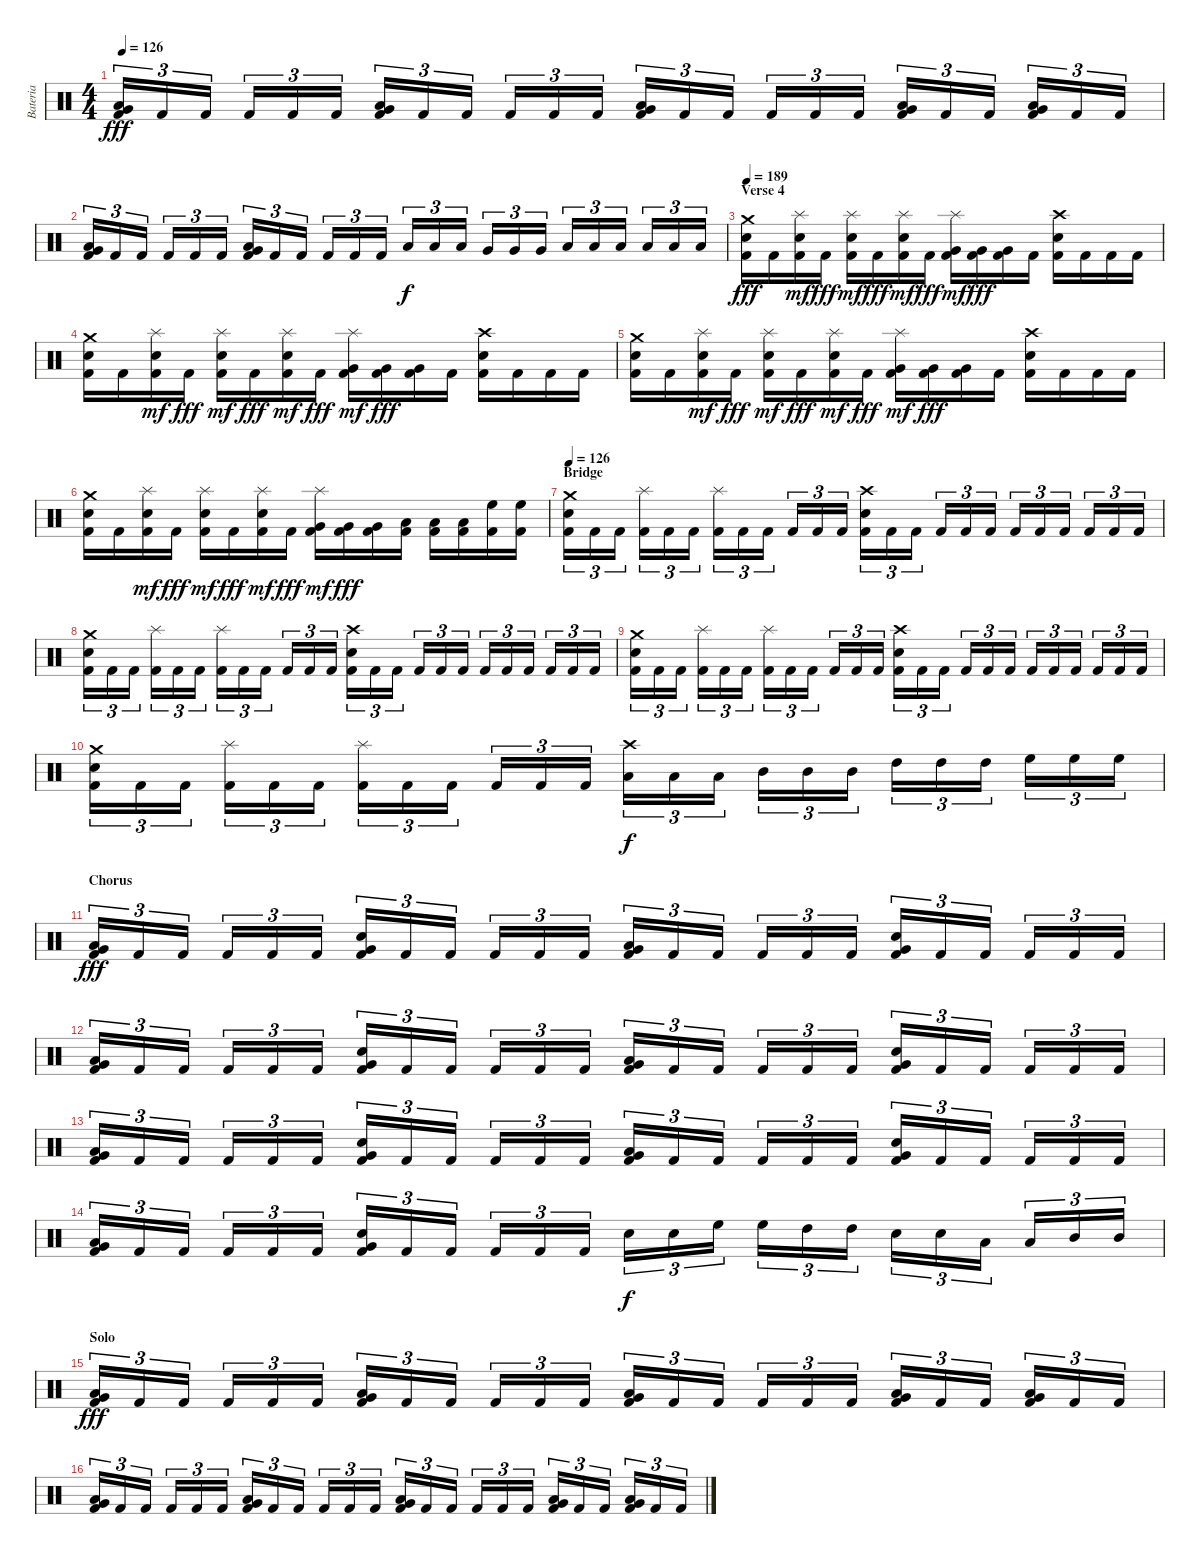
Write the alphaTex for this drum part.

\track ("Bateria" "Bateria") {instrument percussion}
\staff {score}
\articulation defaults
\ts (4 4)
\tempo 126
\clef neutral
\ks c
("Kick (hit) 2" "Low Floor Tom (hit)" "Very Low Tom (hit)").16{tu (3 2) dy fff} "Kick (hit) 2".16{tu (3 2)} "Kick (hit) 2".16{tu (3 2)} "Kick (hit) 2".16{tu (3 2)} "Kick (hit) 2".16{tu (3 2)} "Kick (hit) 2".16{tu (3 2)} ("Kick (hit) 2" "Low Floor Tom (hit)" "Very Low Tom (hit)").16{tu (3 2)} "Kick (hit) 2".16{tu (3 2)} "Kick (hit) 2".16{tu (3 2)} "Kick (hit) 2".16{tu (3 2)} "Kick (hit) 2".16{tu (3 2)} "Kick (hit) 2".16{tu (3 2)} ("Kick (hit) 2" "Low Floor Tom (hit)" "Very Low Tom (hit)").16{tu (3 2)} "Kick (hit) 2".16{tu (3 2)} "Kick (hit) 2".16{tu (3 2)} "Kick (hit) 2".16{tu (3 2)} "Kick (hit) 2".16{tu (3 2)} "Kick (hit) 2".16{tu (3 2)} ("Kick (hit) 2" "Low Floor Tom (hit)" "Very Low Tom (hit)").16{tu (3 2)} "Kick (hit) 2".16{tu (3 2)} "Kick (hit) 2".16{tu (3 2)} ("Kick (hit) 2" "Low Floor Tom (hit)" "Very Low Tom (hit)").16{tu (3 2)} "Kick (hit) 2".16{tu (3 2)} "Kick (hit) 2".16{tu (3 2)} |
("Kick (hit) 2" "Low Floor Tom (hit)" "Very Low Tom (hit)").16{tu (3 2)} "Kick (hit) 2".16{tu (3 2)} "Kick (hit) 2".16{tu (3 2)} "Kick (hit) 2".16{tu (3 2)} "Kick (hit) 2".16{tu (3 2)} "Kick (hit) 2".16{tu (3 2)} ("Kick (hit) 2" "Low Floor Tom (hit)" "Very Low Tom (hit)").16{tu (3 2)} "Kick (hit) 2".16{tu (3 2)} "Kick (hit) 2".16{tu (3 2)} "Kick (hit) 2".16{tu (3 2)} "Kick (hit) 2".16{tu (3 2)} "Kick (hit) 2".16{tu (3 2)} "Low Tom (hit)".16{tu (3 2) dy f} "Low Tom (hit)".16{tu (3 2)} "Low Tom (hit)".16{tu (3 2)} "Very Low Tom (hit)".16{tu (3 2)} "Very Low Tom (hit)".16{tu (3 2)} "Very Low Tom (hit)".16{tu (3 2)} "Low Tom (hit)".16{tu (3 2)} "Low Tom (hit)".16{tu (3 2)} "Low Tom (hit)".16{tu (3 2)} "Low Floor Tom (hit)".16{tu (3 2)} "Low Floor Tom (hit)".16{tu (3 2)} "Low Floor Tom (hit)".16{tu (3 2)} |
\section ("" "Verse 4")
\tempo 189
("Kick (hit) 2" "Electric Snare (hit)" "Crash medium (hit)").16{dy fff} "Kick (hit) 2".16 ("Kick (hit) 2" "Electric Snare (hit)" "Splash (hit)").16{dy mf} "Kick (hit) 2".16{dy fff} ("Kick (hit) 2" "Electric Snare (hit)" "Splash (hit)").16{dy mf} "Kick (hit) 2".16{dy fff} ("Kick (hit) 2" "Electric Snare (hit)" "Splash (hit)").16{dy mf} "Kick (hit) 2".16{dy fff} ("Kick (hit) 2" "Very Low Tom (hit)" "Splash (hit)").16{dy mf} ("Kick (hit) 2" "Very Low Tom (hit)").16{dy fff} ("Kick (hit) 2" "Very Low Tom (hit)").16 "Kick (hit) 2".16 ("Kick (hit) 2" "Electric Snare (hit)" "Crash high (hit)").16 "Kick (hit) 2".16 "Kick (hit) 2".16 "Kick (hit) 2".16 |
("Kick (hit) 2" "Electric Snare (hit)" "Crash medium (hit)").16 "Kick (hit) 2".16 ("Kick (hit) 2" "Electric Snare (hit)" "Splash (hit)").16{dy mf} "Kick (hit) 2".16{dy fff} ("Kick (hit) 2" "Electric Snare (hit)" "Splash (hit)").16{dy mf} "Kick (hit) 2".16{dy fff} ("Kick (hit) 2" "Electric Snare (hit)" "Splash (hit)").16{dy mf} "Kick (hit) 2".16{dy fff} ("Kick (hit) 2" "Very Low Tom (hit)" "Splash (hit)").16{dy mf} ("Kick (hit) 2" "Very Low Tom (hit)").16{dy fff} ("Kick (hit) 2" "Very Low Tom (hit)").16 "Kick (hit) 2".16 ("Kick (hit) 2" "Electric Snare (hit)" "Crash high (hit)").16 "Kick (hit) 2".16 "Kick (hit) 2".16 "Kick (hit) 2".16 |
("Kick (hit) 2" "Electric Snare (hit)" "Crash medium (hit)").16 "Kick (hit) 2".16 ("Kick (hit) 2" "Electric Snare (hit)" "Splash (hit)").16{dy mf} "Kick (hit) 2".16{dy fff} ("Kick (hit) 2" "Electric Snare (hit)" "Splash (hit)").16{dy mf} "Kick (hit) 2".16{dy fff} ("Kick (hit) 2" "Electric Snare (hit)" "Splash (hit)").16{dy mf} "Kick (hit) 2".16{dy fff} ("Kick (hit) 2" "Very Low Tom (hit)" "Splash (hit)").16{dy mf} ("Kick (hit) 2" "Very Low Tom (hit)").16{dy fff} ("Kick (hit) 2" "Very Low Tom (hit)").16 "Kick (hit) 2".16 ("Kick (hit) 2" "Electric Snare (hit)" "Crash high (hit)").16 "Kick (hit) 2".16 "Kick (hit) 2".16 "Kick (hit) 2".16 |
("Kick (hit) 2" "Electric Snare (hit)" "Crash medium (hit)").16 "Kick (hit) 2".16 ("Kick (hit) 2" "Electric Snare (hit)" "Splash (hit)").16{dy mf} "Kick (hit) 2".16{dy fff} ("Kick (hit) 2" "Electric Snare (hit)" "Splash (hit)").16{dy mf} "Kick (hit) 2".16{dy fff} ("Kick (hit) 2" "Electric Snare (hit)" "Splash (hit)").16{dy mf} "Kick (hit) 2".16{dy fff} ("Kick (hit) 2" "Very Low Tom (hit)" "Splash (hit)").16{dy mf} ("Kick (hit) 2" "Very Low Tom (hit)").16{dy fff} ("Kick (hit) 2" "Very Low Tom (hit)").16 ("Kick (hit) 2" "Low Floor Tom (hit)").16 ("Kick (hit) 2" "Low Floor Tom (hit)").16 ("Kick (hit) 2" "Low Floor Tom (hit)").16 ("Kick (hit) 2" "High Floor Tom (hit)").16 ("Kick (hit) 2" "High Floor Tom (hit)").16 |
\section ("" "Bridge")
\tempo 126
("Kick (hit) 2" "Electric Snare (hit)" "Crash medium (hit)").16{tu (3 2)} "Kick (hit) 2".16{tu (3 2)} "Kick (hit) 2".16{tu (3 2)} ("Kick (hit) 2" "Splash (hit)").16{tu (3 2)} "Kick (hit) 2".16{tu (3 2)} "Kick (hit) 2".16{tu (3 2)} ("Kick (hit) 2" "Splash (hit)").16{tu (3 2)} "Kick (hit) 2".16{tu (3 2)} "Kick (hit) 2".16{tu (3 2)} "Kick (hit) 2".16{tu (3 2)} "Kick (hit) 2".16{tu (3 2)} "Kick (hit) 2".16{tu (3 2)} ("Kick (hit) 2" "Electric Snare (hit)" "Crash high (hit)").16{tu (3 2)} "Kick (hit) 2".16{tu (3 2)} "Kick (hit) 2".16{tu (3 2)} "Kick (hit) 2".16{tu (3 2)} "Kick (hit) 2".16{tu (3 2)} "Kick (hit) 2".16{tu (3 2)} "Kick (hit) 2".16{tu (3 2)} "Kick (hit) 2".16{tu (3 2)} "Kick (hit) 2".16{tu (3 2)} "Kick (hit) 2".16{tu (3 2)} "Kick (hit) 2".16{tu (3 2)} "Kick (hit) 2".16{tu (3 2)} |
("Kick (hit) 2" "Electric Snare (hit)" "Crash medium (hit)").16{tu (3 2)} "Kick (hit) 2".16{tu (3 2)} "Kick (hit) 2".16{tu (3 2)} ("Kick (hit) 2" "Splash (hit)").16{tu (3 2)} "Kick (hit) 2".16{tu (3 2)} "Kick (hit) 2".16{tu (3 2)} ("Kick (hit) 2" "Splash (hit)").16{tu (3 2)} "Kick (hit) 2".16{tu (3 2)} "Kick (hit) 2".16{tu (3 2)} "Kick (hit) 2".16{tu (3 2)} "Kick (hit) 2".16{tu (3 2)} "Kick (hit) 2".16{tu (3 2)} ("Kick (hit) 2" "Electric Snare (hit)" "Crash high (hit)").16{tu (3 2)} "Kick (hit) 2".16{tu (3 2)} "Kick (hit) 2".16{tu (3 2)} "Kick (hit) 2".16{tu (3 2)} "Kick (hit) 2".16{tu (3 2)} "Kick (hit) 2".16{tu (3 2)} "Kick (hit) 2".16{tu (3 2)} "Kick (hit) 2".16{tu (3 2)} "Kick (hit) 2".16{tu (3 2)} "Kick (hit) 2".16{tu (3 2)} "Kick (hit) 2".16{tu (3 2)} "Kick (hit) 2".16{tu (3 2)} |
("Kick (hit) 2" "Electric Snare (hit)" "Crash medium (hit)").16{tu (3 2)} "Kick (hit) 2".16{tu (3 2)} "Kick (hit) 2".16{tu (3 2)} ("Kick (hit) 2" "Splash (hit)").16{tu (3 2)} "Kick (hit) 2".16{tu (3 2)} "Kick (hit) 2".16{tu (3 2)} ("Kick (hit) 2" "Splash (hit)").16{tu (3 2)} "Kick (hit) 2".16{tu (3 2)} "Kick (hit) 2".16{tu (3 2)} "Kick (hit) 2".16{tu (3 2)} "Kick (hit) 2".16{tu (3 2)} "Kick (hit) 2".16{tu (3 2)} ("Kick (hit) 2" "Electric Snare (hit)" "Crash high (hit)").16{tu (3 2)} "Kick (hit) 2".16{tu (3 2)} "Kick (hit) 2".16{tu (3 2)} "Kick (hit) 2".16{tu (3 2)} "Kick (hit) 2".16{tu (3 2)} "Kick (hit) 2".16{tu (3 2)} "Kick (hit) 2".16{tu (3 2)} "Kick (hit) 2".16{tu (3 2)} "Kick (hit) 2".16{tu (3 2)} "Kick (hit) 2".16{tu (3 2)} "Kick (hit) 2".16{tu (3 2)} "Kick (hit) 2".16{tu (3 2)} |
("Kick (hit) 2" "Electric Snare (hit)" "Crash medium (hit)").16{tu (3 2)} "Kick (hit) 2".16{tu (3 2)} "Kick (hit) 2".16{tu (3 2)} ("Kick (hit) 2" "Splash (hit)").16{tu (3 2)} "Kick (hit) 2".16{tu (3 2)} "Kick (hit) 2".16{tu (3 2)} ("Kick (hit) 2" "Splash (hit)").16{tu (3 2)} "Kick (hit) 2".16{tu (3 2)} "Kick (hit) 2".16{tu (3 2)} "Kick (hit) 2".16{tu (3 2)} "Kick (hit) 2".16{tu (3 2)} "Kick (hit) 2".16{tu (3 2)} ("Low Tom (hit)" "Crash high (hit)").16{tu (3 2) dy f} "Low Tom (hit)".16{tu (3 2)} "Low Tom (hit)".16{tu (3 2)} "Mid Tom (hit)".16{tu (3 2)} "Mid Tom (hit)".16{tu (3 2)} "Mid Tom (hit)".16{tu (3 2)} "High Tom (hit)".16{tu (3 2)} "High Tom (hit)".16{tu (3 2)} "High Tom (hit)".16{tu (3 2)} "High Floor Tom (hit)".16{tu (3 2)} "High Floor Tom (hit)".16{tu (3 2)} "High Floor Tom (hit)".16{tu (3 2)} |
\section ("" "Chorus")
("Kick (hit) 2" "Low Floor Tom (hit)" "Very Low Tom (hit)").16{tu (3 2) dy fff} "Kick (hit) 2".16{tu (3 2)} "Kick (hit) 2".16{tu (3 2)} "Kick (hit) 2".16{tu (3 2)} "Kick (hit) 2".16{tu (3 2)} "Kick (hit) 2".16{tu (3 2)} ("Kick (hit) 2" "Electric Snare (hit)" "Very Low Tom (hit)").16{tu (3 2)} "Kick (hit) 2".16{tu (3 2)} "Kick (hit) 2".16{tu (3 2)} "Kick (hit) 2".16{tu (3 2)} "Kick (hit) 2".16{tu (3 2)} "Kick (hit) 2".16{tu (3 2)} ("Kick (hit) 2" "Low Floor Tom (hit)" "Very Low Tom (hit)").16{tu (3 2)} "Kick (hit) 2".16{tu (3 2)} "Kick (hit) 2".16{tu (3 2)} "Kick (hit) 2".16{tu (3 2)} "Kick (hit) 2".16{tu (3 2)} "Kick (hit) 2".16{tu (3 2)} ("Kick (hit) 2" "Electric Snare (hit)" "Very Low Tom (hit)").16{tu (3 2)} "Kick (hit) 2".16{tu (3 2)} "Kick (hit) 2".16{tu (3 2)} "Kick (hit) 2".16{tu (3 2)} "Kick (hit) 2".16{tu (3 2)} "Kick (hit) 2".16{tu (3 2)} |
("Kick (hit) 2" "Low Floor Tom (hit)" "Very Low Tom (hit)").16{tu (3 2)} "Kick (hit) 2".16{tu (3 2)} "Kick (hit) 2".16{tu (3 2)} "Kick (hit) 2".16{tu (3 2)} "Kick (hit) 2".16{tu (3 2)} "Kick (hit) 2".16{tu (3 2)} ("Kick (hit) 2" "Electric Snare (hit)" "Very Low Tom (hit)").16{tu (3 2)} "Kick (hit) 2".16{tu (3 2)} "Kick (hit) 2".16{tu (3 2)} "Kick (hit) 2".16{tu (3 2)} "Kick (hit) 2".16{tu (3 2)} "Kick (hit) 2".16{tu (3 2)} ("Kick (hit) 2" "Low Floor Tom (hit)" "Very Low Tom (hit)").16{tu (3 2)} "Kick (hit) 2".16{tu (3 2)} "Kick (hit) 2".16{tu (3 2)} "Kick (hit) 2".16{tu (3 2)} "Kick (hit) 2".16{tu (3 2)} "Kick (hit) 2".16{tu (3 2)} ("Kick (hit) 2" "Electric Snare (hit)" "Very Low Tom (hit)").16{tu (3 2)} "Kick (hit) 2".16{tu (3 2)} "Kick (hit) 2".16{tu (3 2)} "Kick (hit) 2".16{tu (3 2)} "Kick (hit) 2".16{tu (3 2)} "Kick (hit) 2".16{tu (3 2)} |
("Kick (hit) 2" "Low Floor Tom (hit)" "Very Low Tom (hit)").16{tu (3 2)} "Kick (hit) 2".16{tu (3 2)} "Kick (hit) 2".16{tu (3 2)} "Kick (hit) 2".16{tu (3 2)} "Kick (hit) 2".16{tu (3 2)} "Kick (hit) 2".16{tu (3 2)} ("Kick (hit) 2" "Electric Snare (hit)" "Very Low Tom (hit)").16{tu (3 2)} "Kick (hit) 2".16{tu (3 2)} "Kick (hit) 2".16{tu (3 2)} "Kick (hit) 2".16{tu (3 2)} "Kick (hit) 2".16{tu (3 2)} "Kick (hit) 2".16{tu (3 2)} ("Kick (hit) 2" "Low Floor Tom (hit)" "Very Low Tom (hit)").16{tu (3 2)} "Kick (hit) 2".16{tu (3 2)} "Kick (hit) 2".16{tu (3 2)} "Kick (hit) 2".16{tu (3 2)} "Kick (hit) 2".16{tu (3 2)} "Kick (hit) 2".16{tu (3 2)} ("Kick (hit) 2" "Electric Snare (hit)" "Very Low Tom (hit)").16{tu (3 2)} "Kick (hit) 2".16{tu (3 2)} "Kick (hit) 2".16{tu (3 2)} "Kick (hit) 2".16{tu (3 2)} "Kick (hit) 2".16{tu (3 2)} "Kick (hit) 2".16{tu (3 2)} |
("Kick (hit) 2" "Low Floor Tom (hit)" "Very Low Tom (hit)").16{tu (3 2)} "Kick (hit) 2".16{tu (3 2)} "Kick (hit) 2".16{tu (3 2)} "Kick (hit) 2".16{tu (3 2)} "Kick (hit) 2".16{tu (3 2)} "Kick (hit) 2".16{tu (3 2)} ("Kick (hit) 2" "Electric Snare (hit)" "Very Low Tom (hit)").16{tu (3 2)} "Kick (hit) 2".16{tu (3 2)} "Kick (hit) 2".16{tu (3 2)} "Kick (hit) 2".16{tu (3 2)} "Kick (hit) 2".16{tu (3 2)} "Kick (hit) 2".16{tu (3 2)} "Electric Snare (hit)".16{tu (3 2) dy f} "Electric Snare (hit)".16{tu (3 2)} "High Floor Tom (hit)".16{tu (3 2)} "High Floor Tom (hit)".16{tu (3 2)} "High Tom (hit)".16{tu (3 2)} "High Tom (hit)".16{tu (3 2)} "Electric Snare (hit)".16{tu (3 2)} "Electric Snare (hit)".16{tu (3 2)} "Low Tom (hit)".16{tu (3 2)} "Low Tom (hit)".16{tu (3 2)} "Mid Tom (hit)".16{tu (3 2)} "Mid Tom (hit)".16{tu (3 2)} |
\section ("" "Solo")
("Kick (hit) 2" "Low Floor Tom (hit)" "Very Low Tom (hit)").16{tu (3 2) dy fff} "Kick (hit) 2".16{tu (3 2)} "Kick (hit) 2".16{tu (3 2)} "Kick (hit) 2".16{tu (3 2)} "Kick (hit) 2".16{tu (3 2)} "Kick (hit) 2".16{tu (3 2)} ("Kick (hit) 2" "Low Floor Tom (hit)" "Very Low Tom (hit)").16{tu (3 2)} "Kick (hit) 2".16{tu (3 2)} "Kick (hit) 2".16{tu (3 2)} "Kick (hit) 2".16{tu (3 2)} "Kick (hit) 2".16{tu (3 2)} "Kick (hit) 2".16{tu (3 2)} ("Kick (hit) 2" "Low Floor Tom (hit)" "Very Low Tom (hit)").16{tu (3 2)} "Kick (hit) 2".16{tu (3 2)} "Kick (hit) 2".16{tu (3 2)} "Kick (hit) 2".16{tu (3 2)} "Kick (hit) 2".16{tu (3 2)} "Kick (hit) 2".16{tu (3 2)} ("Kick (hit) 2" "Low Floor Tom (hit)" "Very Low Tom (hit)").16{tu (3 2)} "Kick (hit) 2".16{tu (3 2)} "Kick (hit) 2".16{tu (3 2)} ("Kick (hit) 2" "Low Floor Tom (hit)" "Very Low Tom (hit)").16{tu (3 2)} "Kick (hit) 2".16{tu (3 2)} "Kick (hit) 2".16{tu (3 2)} |
("Kick (hit) 2" "Low Floor Tom (hit)" "Very Low Tom (hit)").16{tu (3 2)} "Kick (hit) 2".16{tu (3 2)} "Kick (hit) 2".16{tu (3 2)} "Kick (hit) 2".16{tu (3 2)} "Kick (hit) 2".16{tu (3 2)} "Kick (hit) 2".16{tu (3 2)} ("Kick (hit) 2" "Low Floor Tom (hit)" "Very Low Tom (hit)").16{tu (3 2)} "Kick (hit) 2".16{tu (3 2)} "Kick (hit) 2".16{tu (3 2)} "Kick (hit) 2".16{tu (3 2)} "Kick (hit) 2".16{tu (3 2)} "Kick (hit) 2".16{tu (3 2)} ("Kick (hit) 2" "Low Floor Tom (hit)" "Very Low Tom (hit)").16{tu (3 2)} "Kick (hit) 2".16{tu (3 2)} "Kick (hit) 2".16{tu (3 2)} "Kick (hit) 2".16{tu (3 2)} "Kick (hit) 2".16{tu (3 2)} "Kick (hit) 2".16{tu (3 2)} ("Kick (hit) 2" "Low Floor Tom (hit)" "Very Low Tom (hit)").16{tu (3 2)} "Kick (hit) 2".16{tu (3 2)} "Kick (hit) 2".16{tu (3 2)} ("Kick (hit) 2" "Low Floor Tom (hit)" "Very Low Tom (hit)").16{tu (3 2)} "Kick (hit) 2".16{tu (3 2)} "Kick (hit) 2".16{tu (3 2)}
